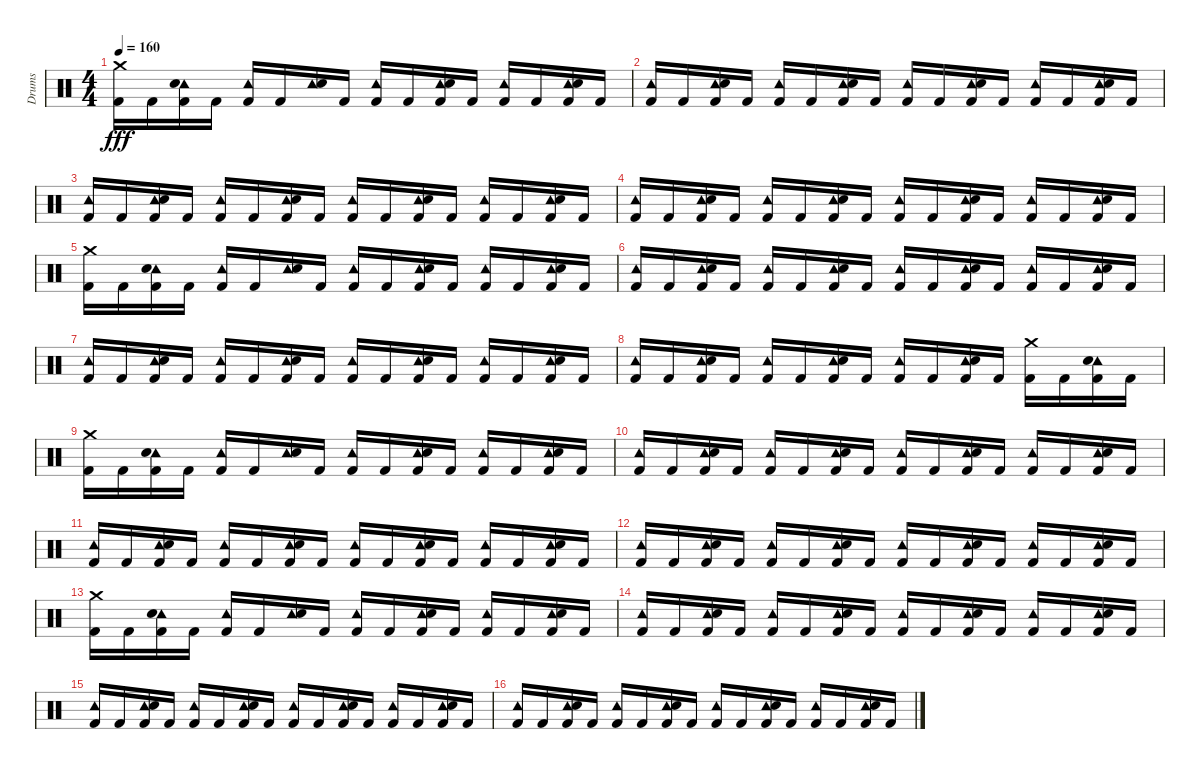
\track ("Drums" "Drums") {instrument percussion}
\staff {score}
\articulation defaults
\ts (4 4)
\tempo 160
\clef neutral
\ks c
("Crash medium (hit)" "Kick (hit) 2").16{dy fff} "Kick (hit) 2".16 ("Kick (hit) 2" "Tambourine (hit)" "Electric Snare (hit)").16 "Kick (hit) 2".16 ("Kick (hit) 2" "Tambourine (hit)").16 "Kick (hit) 2".16 ("Tambourine (hit)" "Electric Snare (hit)").16 "Kick (hit) 2".16 ("Kick (hit) 2" "Tambourine (hit)").16 "Kick (hit) 2".16 ("Kick (hit) 2" "Tambourine (hit)" "Electric Snare (hit)").16 "Kick (hit) 2".16 ("Kick (hit) 2" "Tambourine (hit)").16 "Kick (hit) 2".16 ("Kick (hit) 2" "Tambourine (hit)" "Electric Snare (hit)").16 "Kick (hit) 2".16 |
("Kick (hit) 2" "Tambourine (hit)").16 "Kick (hit) 2".16 ("Kick (hit) 2" "Tambourine (hit)" "Electric Snare (hit)").16 "Kick (hit) 2".16 ("Kick (hit) 2" "Tambourine (hit)").16 "Kick (hit) 2".16 ("Kick (hit) 2" "Tambourine (hit)" "Electric Snare (hit)").16 "Kick (hit) 2".16 ("Kick (hit) 2" "Tambourine (hit)").16 "Kick (hit) 2".16 ("Kick (hit) 2" "Tambourine (hit)" "Electric Snare (hit)").16 "Kick (hit) 2".16 ("Kick (hit) 2" "Tambourine (hit)").16 "Kick (hit) 2".16 ("Kick (hit) 2" "Tambourine (hit)" "Electric Snare (hit)").16 "Kick (hit) 2".16 |
("Kick (hit) 2" "Tambourine (hit)").16 "Kick (hit) 2".16 ("Kick (hit) 2" "Tambourine (hit)" "Electric Snare (hit)").16 "Kick (hit) 2".16 ("Kick (hit) 2" "Tambourine (hit)").16 "Kick (hit) 2".16 ("Kick (hit) 2" "Tambourine (hit)" "Electric Snare (hit)").16 "Kick (hit) 2".16 ("Kick (hit) 2" "Tambourine (hit)").16 "Kick (hit) 2".16 ("Kick (hit) 2" "Tambourine (hit)" "Electric Snare (hit)").16 "Kick (hit) 2".16 ("Kick (hit) 2" "Tambourine (hit)").16 "Kick (hit) 2".16 ("Kick (hit) 2" "Tambourine (hit)" "Electric Snare (hit)").16 "Kick (hit) 2".16 |
("Kick (hit) 2" "Tambourine (hit)").16 "Kick (hit) 2".16 ("Kick (hit) 2" "Tambourine (hit)" "Electric Snare (hit)").16 "Kick (hit) 2".16 ("Kick (hit) 2" "Tambourine (hit)").16 "Kick (hit) 2".16 ("Kick (hit) 2" "Tambourine (hit)" "Electric Snare (hit)").16 "Kick (hit) 2".16 ("Kick (hit) 2" "Tambourine (hit)").16 "Kick (hit) 2".16 ("Kick (hit) 2" "Tambourine (hit)" "Electric Snare (hit)").16 "Kick (hit) 2".16 ("Kick (hit) 2" "Tambourine (hit)").16 "Kick (hit) 2".16 ("Kick (hit) 2" "Tambourine (hit)" "Electric Snare (hit)").16 "Kick (hit) 2".16 |
("Crash medium (hit)" "Kick (hit) 2").16 "Kick (hit) 2".16 ("Kick (hit) 2" "Tambourine (hit)" "Electric Snare (hit)").16 "Kick (hit) 2".16 ("Kick (hit) 2" "Tambourine (hit)").16 "Kick (hit) 2".16 ("Tambourine (hit)" "Electric Snare (hit)").16 "Kick (hit) 2".16 ("Kick (hit) 2" "Tambourine (hit)").16 "Kick (hit) 2".16 ("Kick (hit) 2" "Tambourine (hit)" "Electric Snare (hit)").16 "Kick (hit) 2".16 ("Kick (hit) 2" "Tambourine (hit)").16 "Kick (hit) 2".16 ("Kick (hit) 2" "Tambourine (hit)" "Electric Snare (hit)").16 "Kick (hit) 2".16 |
("Kick (hit) 2" "Tambourine (hit)").16 "Kick (hit) 2".16 ("Kick (hit) 2" "Tambourine (hit)" "Electric Snare (hit)").16 "Kick (hit) 2".16 ("Kick (hit) 2" "Tambourine (hit)").16 "Kick (hit) 2".16 ("Kick (hit) 2" "Tambourine (hit)" "Electric Snare (hit)").16 "Kick (hit) 2".16 ("Kick (hit) 2" "Tambourine (hit)").16 "Kick (hit) 2".16 ("Kick (hit) 2" "Tambourine (hit)" "Electric Snare (hit)").16 "Kick (hit) 2".16 ("Kick (hit) 2" "Tambourine (hit)").16 "Kick (hit) 2".16 ("Kick (hit) 2" "Tambourine (hit)" "Electric Snare (hit)").16 "Kick (hit) 2".16 |
("Kick (hit) 2" "Tambourine (hit)").16 "Kick (hit) 2".16 ("Kick (hit) 2" "Tambourine (hit)" "Electric Snare (hit)").16 "Kick (hit) 2".16 ("Kick (hit) 2" "Tambourine (hit)").16 "Kick (hit) 2".16 ("Kick (hit) 2" "Tambourine (hit)" "Electric Snare (hit)").16 "Kick (hit) 2".16 ("Kick (hit) 2" "Tambourine (hit)").16 "Kick (hit) 2".16 ("Kick (hit) 2" "Tambourine (hit)" "Electric Snare (hit)").16 "Kick (hit) 2".16 ("Kick (hit) 2" "Tambourine (hit)").16 "Kick (hit) 2".16 ("Kick (hit) 2" "Tambourine (hit)" "Electric Snare (hit)").16 "Kick (hit) 2".16 |
("Kick (hit) 2" "Tambourine (hit)").16 "Kick (hit) 2".16 ("Kick (hit) 2" "Tambourine (hit)" "Electric Snare (hit)").16 "Kick (hit) 2".16 ("Kick (hit) 2" "Tambourine (hit)").16 "Kick (hit) 2".16 ("Kick (hit) 2" "Tambourine (hit)" "Electric Snare (hit)").16 "Kick (hit) 2".16 ("Kick (hit) 2" "Tambourine (hit)").16 "Kick (hit) 2".16 ("Kick (hit) 2" "Tambourine (hit)" "Electric Snare (hit)").16 "Kick (hit) 2".16 ("Crash medium (hit)" "Kick (hit) 2").16 "Kick (hit) 2".16 ("Kick (hit) 2" "Tambourine (hit)" "Electric Snare (hit)").16 "Kick (hit) 2".16 |
("Crash medium (hit)" "Kick (hit) 2").16 "Kick (hit) 2".16 ("Kick (hit) 2" "Tambourine (hit)" "Electric Snare (hit)").16 "Kick (hit) 2".16 ("Kick (hit) 2" "Tambourine (hit)").16 "Kick (hit) 2".16 ("Tambourine (hit)" "Electric Snare (hit)").16 "Kick (hit) 2".16 ("Kick (hit) 2" "Tambourine (hit)").16 "Kick (hit) 2".16 ("Kick (hit) 2" "Tambourine (hit)" "Electric Snare (hit)").16 "Kick (hit) 2".16 ("Kick (hit) 2" "Tambourine (hit)").16 "Kick (hit) 2".16 ("Kick (hit) 2" "Tambourine (hit)" "Electric Snare (hit)").16 "Kick (hit) 2".16 |
("Kick (hit) 2" "Tambourine (hit)").16 "Kick (hit) 2".16 ("Kick (hit) 2" "Tambourine (hit)" "Electric Snare (hit)").16 "Kick (hit) 2".16 ("Kick (hit) 2" "Tambourine (hit)").16 "Kick (hit) 2".16 ("Kick (hit) 2" "Tambourine (hit)" "Electric Snare (hit)").16 "Kick (hit) 2".16 ("Kick (hit) 2" "Tambourine (hit)").16 "Kick (hit) 2".16 ("Kick (hit) 2" "Tambourine (hit)" "Electric Snare (hit)").16 "Kick (hit) 2".16 ("Kick (hit) 2" "Tambourine (hit)").16 "Kick (hit) 2".16 ("Kick (hit) 2" "Tambourine (hit)" "Electric Snare (hit)").16 "Kick (hit) 2".16 |
("Kick (hit) 2" "Tambourine (hit)").16 "Kick (hit) 2".16 ("Kick (hit) 2" "Tambourine (hit)" "Electric Snare (hit)").16 "Kick (hit) 2".16 ("Kick (hit) 2" "Tambourine (hit)").16 "Kick (hit) 2".16 ("Kick (hit) 2" "Tambourine (hit)" "Electric Snare (hit)").16 "Kick (hit) 2".16 ("Kick (hit) 2" "Tambourine (hit)").16 "Kick (hit) 2".16 ("Kick (hit) 2" "Tambourine (hit)" "Electric Snare (hit)").16 "Kick (hit) 2".16 ("Kick (hit) 2" "Tambourine (hit)").16 "Kick (hit) 2".16 ("Kick (hit) 2" "Tambourine (hit)" "Electric Snare (hit)").16 "Kick (hit) 2".16 |
("Kick (hit) 2" "Tambourine (hit)").16 "Kick (hit) 2".16 ("Kick (hit) 2" "Tambourine (hit)" "Electric Snare (hit)").16 "Kick (hit) 2".16 ("Kick (hit) 2" "Tambourine (hit)").16 "Kick (hit) 2".16 ("Kick (hit) 2" "Tambourine (hit)" "Electric Snare (hit)").16 "Kick (hit) 2".16 ("Kick (hit) 2" "Tambourine (hit)").16 "Kick (hit) 2".16 ("Kick (hit) 2" "Tambourine (hit)" "Electric Snare (hit)").16 "Kick (hit) 2".16 ("Kick (hit) 2" "Tambourine (hit)").16 "Kick (hit) 2".16 ("Kick (hit) 2" "Tambourine (hit)" "Electric Snare (hit)").16 "Kick (hit) 2".16 |
("Crash medium (hit)" "Kick (hit) 2").16 "Kick (hit) 2".16 ("Kick (hit) 2" "Tambourine (hit)" "Electric Snare (hit)").16 "Kick (hit) 2".16 ("Kick (hit) 2" "Tambourine (hit)").16 "Kick (hit) 2".16 ("Tambourine (hit)" "Electric Snare (hit)").16 "Kick (hit) 2".16 ("Kick (hit) 2" "Tambourine (hit)").16 "Kick (hit) 2".16 ("Kick (hit) 2" "Tambourine (hit)" "Electric Snare (hit)").16 "Kick (hit) 2".16 ("Kick (hit) 2" "Tambourine (hit)").16 "Kick (hit) 2".16 ("Kick (hit) 2" "Tambourine (hit)" "Electric Snare (hit)").16 "Kick (hit) 2".16 |
("Kick (hit) 2" "Tambourine (hit)").16 "Kick (hit) 2".16 ("Kick (hit) 2" "Tambourine (hit)" "Electric Snare (hit)").16 "Kick (hit) 2".16 ("Kick (hit) 2" "Tambourine (hit)").16 "Kick (hit) 2".16 ("Kick (hit) 2" "Tambourine (hit)" "Electric Snare (hit)").16 "Kick (hit) 2".16 ("Kick (hit) 2" "Tambourine (hit)").16 "Kick (hit) 2".16 ("Kick (hit) 2" "Tambourine (hit)" "Electric Snare (hit)").16 "Kick (hit) 2".16 ("Kick (hit) 2" "Tambourine (hit)").16 "Kick (hit) 2".16 ("Kick (hit) 2" "Tambourine (hit)" "Electric Snare (hit)").16 "Kick (hit) 2".16 |
("Kick (hit) 2" "Tambourine (hit)").16 "Kick (hit) 2".16 ("Kick (hit) 2" "Tambourine (hit)" "Electric Snare (hit)").16 "Kick (hit) 2".16 ("Kick (hit) 2" "Tambourine (hit)").16 "Kick (hit) 2".16 ("Kick (hit) 2" "Tambourine (hit)" "Electric Snare (hit)").16 "Kick (hit) 2".16 ("Kick (hit) 2" "Tambourine (hit)").16 "Kick (hit) 2".16 ("Kick (hit) 2" "Tambourine (hit)" "Electric Snare (hit)").16 "Kick (hit) 2".16 ("Kick (hit) 2" "Tambourine (hit)").16 "Kick (hit) 2".16 ("Kick (hit) 2" "Tambourine (hit)" "Electric Snare (hit)").16 "Kick (hit) 2".16 |
("Kick (hit) 2" "Tambourine (hit)").16 "Kick (hit) 2".16 ("Kick (hit) 2" "Tambourine (hit)" "Electric Snare (hit)").16 "Kick (hit) 2".16 ("Kick (hit) 2" "Tambourine (hit)").16 "Kick (hit) 2".16 ("Kick (hit) 2" "Tambourine (hit)" "Electric Snare (hit)").16 "Kick (hit) 2".16 ("Kick (hit) 2" "Tambourine (hit)").16 "Kick (hit) 2".16 ("Kick (hit) 2" "Tambourine (hit)" "Electric Snare (hit)").16 "Kick (hit) 2".16 ("Kick (hit) 2" "Tambourine (hit)").16 "Kick (hit) 2".16 ("Kick (hit) 2" "Tambourine (hit)" "Electric Snare (hit)").16 "Kick (hit) 2".16
